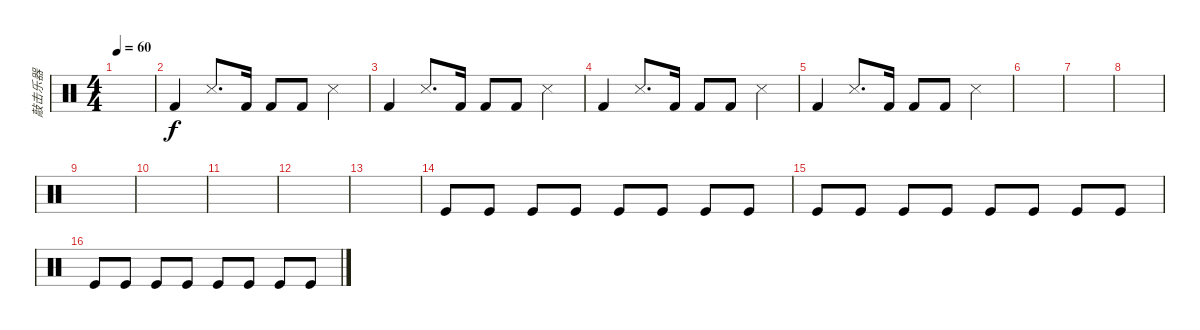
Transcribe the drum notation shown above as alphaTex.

\track ("敲击乐器" "敲击乐器") {instrument percussion}
\staff {score}
\articulation defaults
\ts (4 4)
\tempo 60
\clef neutral
\ks c
|
"Kick (hit) 2".4 "Snare (side stick) 3".8{d} "Kick (hit) 2".16 "Kick (hit) 2".8 "Kick (hit) 2".8 "Snare (side stick) 3".4 |
"Kick (hit) 2".4 "Snare (side stick) 3".8{d} "Kick (hit) 2".16 "Kick (hit) 2".8 "Kick (hit) 2".8 "Snare (side stick) 3".4 |
"Kick (hit) 2".4 "Snare (side stick) 3".8{d} "Kick (hit) 2".16 "Kick (hit) 2".8 "Kick (hit) 2".8 "Snare (side stick) 3".4 |
"Kick (hit) 2".4 "Snare (side stick) 3".8{d} "Kick (hit) 2".16 "Kick (hit) 2".8 "Kick (hit) 2".8 "Snare (side stick) 3".4 |
|
|
|
|
|
|
|
|
"Kick (hit)".8 "Kick (hit)".8 "Kick (hit)".8 "Kick (hit)".8 "Kick (hit)".8 "Kick (hit)".8 "Kick (hit)".8 "Kick (hit)".8 |
"Kick (hit)".8 "Kick (hit)".8 "Kick (hit)".8 "Kick (hit)".8 "Kick (hit)".8 "Kick (hit)".8 "Kick (hit)".8 "Kick (hit)".8 |
"Kick (hit)".8 "Kick (hit)".8 "Kick (hit)".8 "Kick (hit)".8 "Kick (hit)".8 "Kick (hit)".8 "Kick (hit)".8 "Kick (hit)".8
